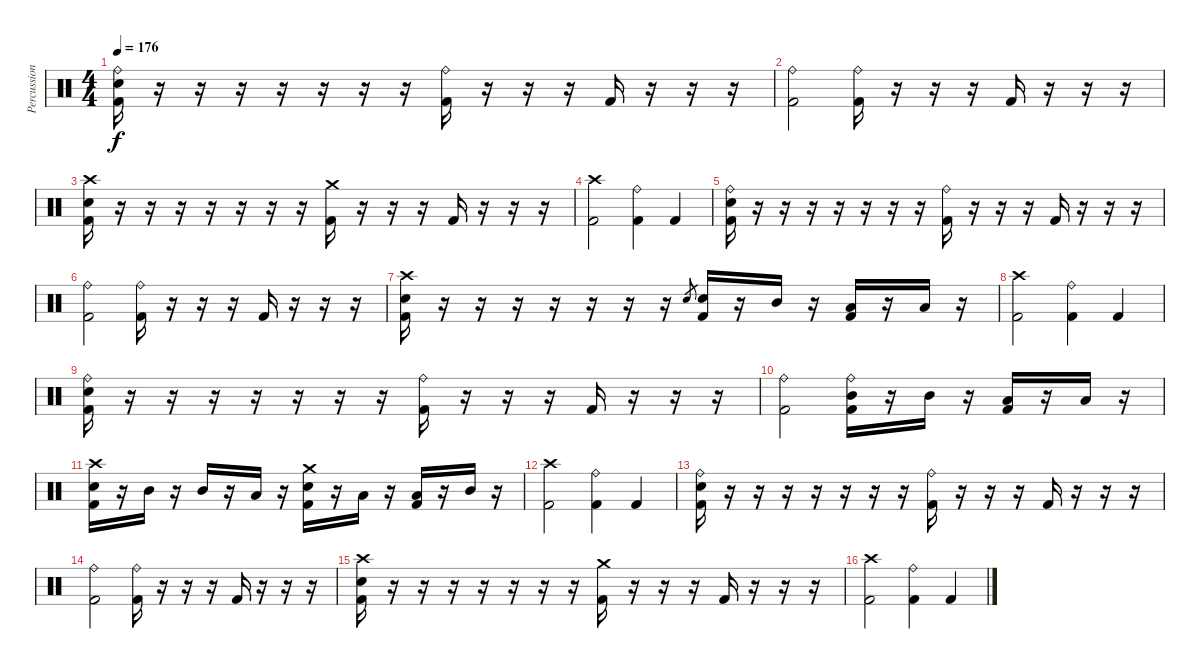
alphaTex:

\track ("Percussion" "Percussion") {instrument percussion}
\staff {score}
\articulation defaults
\ts (4 4)
\tempo 176
\clef neutral
\ks c
("Ride (bell)" "Electric Snare (hit)" "Kick (hit) 2").16{dy f} r.16 r.16 r.16 r.16 r.16 r.16 r.16 ("Ride (bell)" "Kick (hit) 2").16 r.16 r.16 r.16 "Kick (hit) 2".16 r.16 r.16 r.16 |
("Ride (bell)" "Kick (hit) 2").2 ("Ride (bell)" "Kick (hit) 2").16 r.16 r.16 r.16 "Kick (hit) 2".16 r.16 r.16 r.16 |
("Crash high (hit)" "Electric Snare (hit)" "Kick (hit) 2").16 r.16 r.16 r.16 r.16 r.16 r.16 r.16 ("Crash medium (hit)" "Kick (hit) 2").16 r.16 r.16 r.16 "Kick (hit) 2".16 r.16 r.16 r.16 |
("Crash high (hit)" "Kick (hit) 2").2 ("Ride (bell)" "Kick (hit) 2").4 "Kick (hit) 2".4 |
("Ride (bell)" "Electric Snare (hit)" "Kick (hit) 2").16 r.16 r.16 r.16 r.16 r.16 r.16 r.16 ("Ride (bell)" "Kick (hit) 2").16 r.16 r.16 r.16 "Kick (hit) 2".16 r.16 r.16 r.16 |
("Ride (bell)" "Kick (hit) 2").2 ("Ride (bell)" "Kick (hit) 2").16 r.16 r.16 r.16 "Kick (hit) 2".16 r.16 r.16 r.16 |
("Crash high (hit)" "Electric Snare (hit)" "Kick (hit) 2").16 r.16 r.16 r.16 r.16 r.16 r.16 r.16 "Electric Snare (hit)".8{gr} ("Electric Snare (hit)" "Kick (hit) 2").16 r.16 "Mid Tom (hit)".16 r.16 ("Low Tom (hit)" "Kick (hit) 2").16 r.16 "Low Tom (hit)".16 r.16 |
("Crash high (hit)" "Kick (hit) 2").2 ("Ride (bell)" "Kick (hit) 2").4 "Kick (hit) 2".4 |
("Ride (bell)" "Electric Snare (hit)" "Kick (hit) 2").16 r.16 r.16 r.16 r.16 r.16 r.16 r.16 ("Ride (bell)" "Kick (hit) 2").16 r.16 r.16 r.16 "Kick (hit) 2".16 r.16 r.16 r.16 |
("Ride (bell)" "Kick (hit) 2").2 ("Ride (bell)" "Mid Tom (hit)" "Kick (hit) 2").16 r.16 "Mid Tom (hit)".16 r.16 ("Low Tom (hit)" "Kick (hit) 2").16 r.16 "Low Tom (hit)".16 r.16 |
("Crash high (hit)" "Electric Snare (hit)" "Kick (hit) 2").16 r.16 "Mid Tom (hit)".16 r.16 "Mid Tom (hit)".16 r.16 "Low Tom (hit)".16 r.16 ("Crash medium (hit)" "Electric Snare (hit)" "Kick (hit) 2").16 r.16 "Low Tom (hit)".16 r.16 ("Low Tom (hit)" "Kick (hit) 2").16 r.16 "Mid Tom (hit)".16 r.16 |
("Crash high (hit)" "Kick (hit) 2").2 ("Ride (bell)" "Kick (hit) 2").4 "Kick (hit) 2".4 |
("Ride (bell)" "Electric Snare (hit)" "Kick (hit) 2").16 r.16 r.16 r.16 r.16 r.16 r.16 r.16 ("Ride (bell)" "Kick (hit) 2").16 r.16 r.16 r.16 "Kick (hit) 2".16 r.16 r.16 r.16 |
("Ride (bell)" "Kick (hit) 2").2 ("Ride (bell)" "Kick (hit) 2").16 r.16 r.16 r.16 "Kick (hit) 2".16 r.16 r.16 r.16 |
("Crash high (hit)" "Electric Snare (hit)" "Kick (hit) 2").16 r.16 r.16 r.16 r.16 r.16 r.16 r.16 ("Crash medium (hit)" "Kick (hit) 2").16 r.16 r.16 r.16 "Kick (hit) 2".16 r.16 r.16 r.16 |
("Crash high (hit)" "Kick (hit) 2").2 ("Ride (bell)" "Kick (hit) 2").4 "Kick (hit) 2".4
